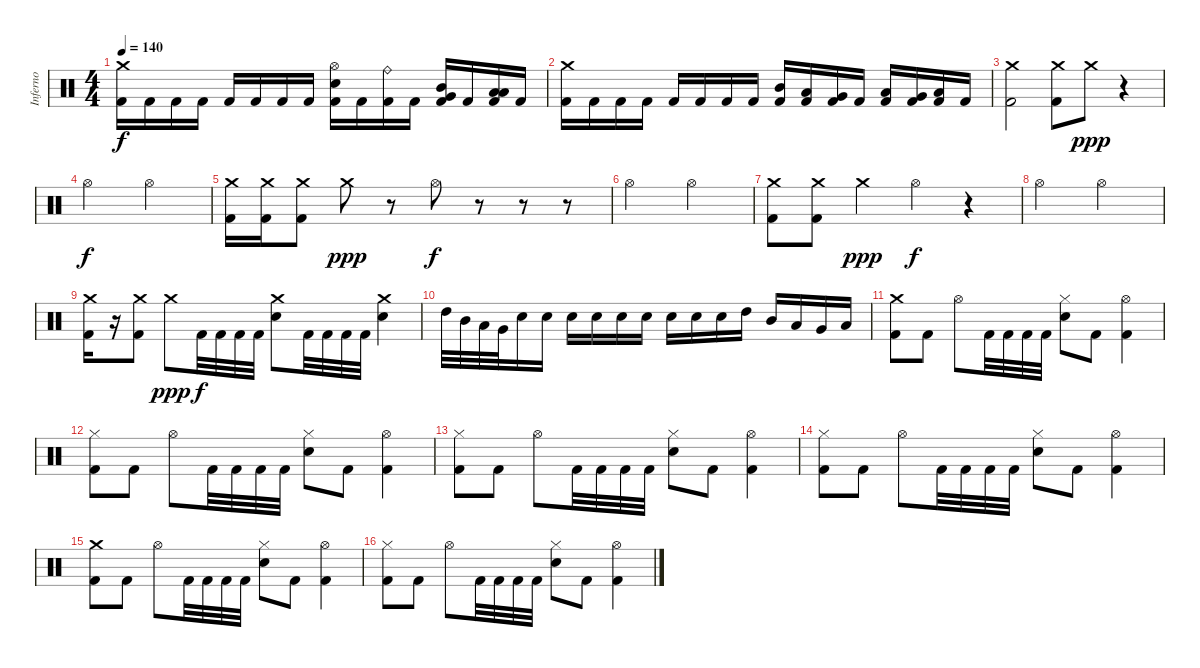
\track ("Inferno" "Inferno") {instrument percussion}
\staff {score}
\articulation defaults
\ts (4 4)
\tempo 140
\clef neutral
\ks c
("Crash medium (hit)" "Kick (hit) 2").16{dy f} "Kick (hit) 2".16 "Kick (hit) 2".16 "Kick (hit) 2".16 "Kick (hit) 2".16 "Kick (hit) 2".16 "Kick (hit) 2".16 "Kick (hit) 2".16 ("Hi-Hat (open)" "Snare (hit) 2" "Kick (hit) 2").16 "Kick (hit) 2".16 ("Ride (bell)" "Kick (hit) 2").16 "Kick (hit) 2".16 ("Mid Tom (hit)" "Very Low Tom (hit)" "Kick (hit) 2").16 "Kick (hit) 2".16 ("Low Tom (hit)" "Low Floor Tom (hit)" "Kick (hit) 2").16 "Kick (hit) 2".16 |
("Crash medium (hit)" "Kick (hit) 2").16 "Kick (hit) 2".16 "Kick (hit) 2".16 "Kick (hit) 2".16 "Kick (hit) 2".16 "Kick (hit) 2".16 "Kick (hit) 2".16 "Kick (hit) 2".16 ("Mid Tom (hit)" "Kick (hit) 2").16 ("Low Tom (hit)" "Kick (hit) 2").16 ("Very Low Tom (hit)" "Kick (hit) 2").16 "Kick (hit) 2".16 ("Low Tom (hit)" "Kick (hit) 2").16 ("Very Low Tom (hit)" "Kick (hit) 2").16 ("Low Floor Tom (hit)" "Kick (hit) 2").16 "Kick (hit) 2".16 |
("Crash medium (hit)" "Kick (hit) 2").2 ("Crash medium (hit)" "Kick (hit) 2").8 "Crash medium (hit)".8{dy ppp} r.4 |
"Hi-Hat (open)".2{dy f} "Hi-Hat (open)".2 |
("Crash medium (hit)" "Kick (hit) 2").16 ("Crash medium (hit)" "Kick (hit) 2").16 ("Crash medium (hit)" "Kick (hit) 2").8 "Crash medium (hit)".8{dy ppp} r.8 "Hi-Hat (open)".8{dy f} r.8 r.8 r.8 |
"Hi-Hat (open)".2 "Hi-Hat (open)".2 |
("Crash medium (hit)" "Kick (hit) 2").8 ("Crash medium (hit)" "Kick (hit) 2").8 "Crash medium (hit)".4{dy ppp} "Hi-Hat (open)".4{dy f} r.4 |
"Hi-Hat (open)".2 "Hi-Hat (open)".2 |
("Crash medium (hit)" "Kick (hit) 2").16 r.16 ("Crash medium (hit)" "Kick (hit) 2").8 "Crash medium (hit)".8{dy ppp} "Kick (hit) 2".32{dy f} "Kick (hit) 2".32 "Kick (hit) 2".32 "Kick (hit) 2".32 ("Crash medium (hit)" "Snare (hit) 2").8 "Kick (hit) 2".32 "Kick (hit) 2".32 "Kick (hit) 2".32 "Kick (hit) 2".32 ("Crash medium (hit)" "Snare (hit) 2").4 |
"High Tom (hit)".32 "Mid Tom (hit)".32 "Low Tom (hit)".32 "Very Low Tom (hit)".32 "Snare (hit) 2".16 "Snare (hit) 2".16 "Snare (hit) 2".16 "Snare (hit) 2".16 "Snare (hit) 2".16 "Snare (hit) 2".16 "Snare (hit) 2".16 "Snare (hit) 2".16 "Snare (hit) 2".16 "High Tom (hit)".16 "Mid Tom (hit)".16 "Low Tom (hit)".16 "Very Low Tom (hit)".16 "Low Floor Tom (hit)".16 |
("Crash medium (hit)" "Kick (hit) 2").8 "Kick (hit) 2".8 "Hi-Hat (open)".8 "Kick (hit) 2".32 "Kick (hit) 2".32 "Kick (hit) 2".32 "Kick (hit) 2".32 ("Hi-Hat (closed)" "Snare (hit) 2").8 "Kick (hit) 2".8 ("Hi-Hat (open)" "Kick (hit) 2").4 |
("Hi-Hat (closed)" "Kick (hit) 2").8 "Kick (hit) 2".8 "Hi-Hat (open)".8 "Kick (hit) 2".32 "Kick (hit) 2".32 "Kick (hit) 2".32 "Kick (hit) 2".32 ("Hi-Hat (closed)" "Snare (hit) 2").8 "Kick (hit) 2".8 ("Hi-Hat (open)" "Kick (hit) 2").4 |
("Hi-Hat (closed)" "Kick (hit) 2").8 "Kick (hit) 2".8 "Hi-Hat (open)".8 "Kick (hit) 2".32 "Kick (hit) 2".32 "Kick (hit) 2".32 "Kick (hit) 2".32 ("Hi-Hat (closed)" "Snare (hit) 2").8 "Kick (hit) 2".8 ("Hi-Hat (open)" "Kick (hit) 2").4 |
("Hi-Hat (closed)" "Kick (hit) 2").8 "Kick (hit) 2".8 "Hi-Hat (open)".8 "Kick (hit) 2".32 "Kick (hit) 2".32 "Kick (hit) 2".32 "Kick (hit) 2".32 ("Hi-Hat (closed)" "Snare (hit) 2").8 "Kick (hit) 2".8 ("Hi-Hat (open)" "Kick (hit) 2").4 |
("Crash medium (hit)" "Kick (hit) 2").8 "Kick (hit) 2".8 "Hi-Hat (open)".8 "Kick (hit) 2".32 "Kick (hit) 2".32 "Kick (hit) 2".32 "Kick (hit) 2".32 ("Hi-Hat (closed)" "Snare (hit) 2").8 "Kick (hit) 2".8 ("Hi-Hat (open)" "Kick (hit) 2").4 |
("Hi-Hat (closed)" "Kick (hit) 2").8 "Kick (hit) 2".8 "Hi-Hat (open)".8 "Kick (hit) 2".32 "Kick (hit) 2".32 "Kick (hit) 2".32 "Kick (hit) 2".32 ("Hi-Hat (closed)" "Snare (hit) 2").8 "Kick (hit) 2".8 ("Hi-Hat (open)" "Kick (hit) 2").4
